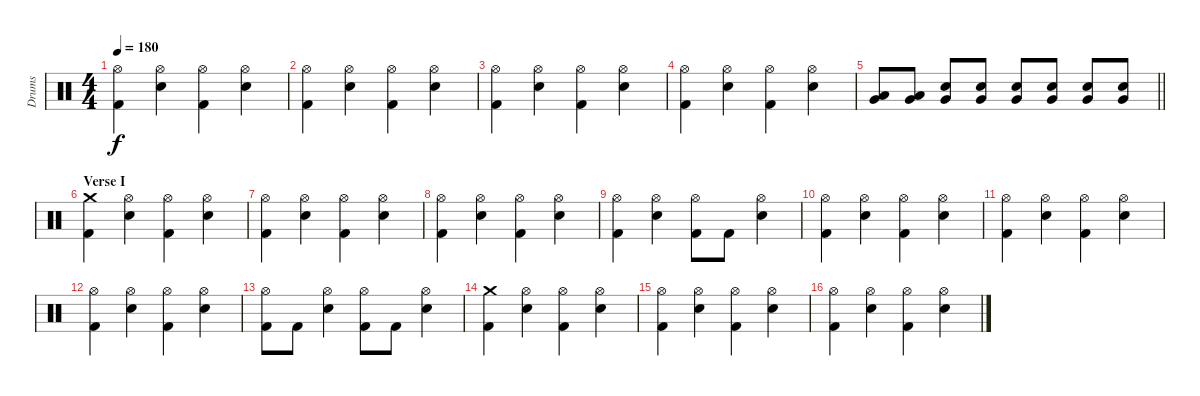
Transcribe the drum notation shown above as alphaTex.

\track ("Drums" "Drums") {instrument percussion}
\staff {score}
\articulation defaults
\ts (4 4)
\tempo 180
\clef neutral
\ks c
("Hi-Hat (open)" "Kick (hit) 2").4{dy f} ("Hi-Hat (open)" "Electric Snare (hit)").4 ("Hi-Hat (open)" "Kick (hit) 2").4 ("Hi-Hat (open)" "Electric Snare (hit)").4 |
("Hi-Hat (open)" "Kick (hit) 2").4 ("Hi-Hat (open)" "Electric Snare (hit)").4 ("Hi-Hat (open)" "Kick (hit) 2").4 ("Hi-Hat (open)" "Electric Snare (hit)").4 |
("Hi-Hat (open)" "Kick (hit) 2").4 ("Hi-Hat (open)" "Electric Snare (hit)").4 ("Hi-Hat (open)" "Kick (hit) 2").4 ("Hi-Hat (open)" "Electric Snare (hit)").4 |
("Hi-Hat (open)" "Kick (hit) 2").4 ("Hi-Hat (open)" "Electric Snare (hit)").4 ("Hi-Hat (open)" "Kick (hit) 2").4 ("Hi-Hat (open)" "Electric Snare (hit)").4 |
\barLineRight lightlight
("Low Tom (hit)" "Very Low Tom (hit)").8 ("Low Tom (hit)" "Very Low Tom (hit)").8 ("Electric Snare (hit)" "Very Low Tom (hit)").8 ("Electric Snare (hit)" "Very Low Tom (hit)").8 ("Electric Snare (hit)" "Very Low Tom (hit)").8 ("Electric Snare (hit)" "Very Low Tom (hit)").8 ("Electric Snare (hit)" "Very Low Tom (hit)").8 ("Electric Snare (hit)" "Very Low Tom (hit)").8 |
\section ("" "Verse I")
("Crash medium (hit)" "Kick (hit) 2").4 ("Hi-Hat (open)" "Electric Snare (hit)").4 ("Hi-Hat (open)" "Kick (hit) 2").4 ("Hi-Hat (open)" "Electric Snare (hit)").4 |
("Hi-Hat (open)" "Kick (hit) 2").4 ("Hi-Hat (open)" "Electric Snare (hit)").4 ("Hi-Hat (open)" "Kick (hit) 2").4 ("Hi-Hat (open)" "Electric Snare (hit)").4 |
("Hi-Hat (open)" "Kick (hit) 2").4 ("Hi-Hat (open)" "Electric Snare (hit)").4 ("Hi-Hat (open)" "Kick (hit) 2").4 ("Hi-Hat (open)" "Electric Snare (hit)").4 |
("Hi-Hat (open)" "Kick (hit) 2").4 ("Hi-Hat (open)" "Electric Snare (hit)").4 ("Hi-Hat (open)" "Kick (hit) 2").8 "Kick (hit) 2".8 ("Hi-Hat (open)" "Electric Snare (hit)").4 |
("Hi-Hat (open)" "Kick (hit) 2").4 ("Hi-Hat (open)" "Electric Snare (hit)").4 ("Hi-Hat (open)" "Kick (hit) 2").4 ("Hi-Hat (open)" "Electric Snare (hit)").4 |
("Hi-Hat (open)" "Kick (hit) 2").4 ("Hi-Hat (open)" "Electric Snare (hit)").4 ("Hi-Hat (open)" "Kick (hit) 2").4 ("Hi-Hat (open)" "Electric Snare (hit)").4 |
("Hi-Hat (open)" "Kick (hit) 2").4 ("Hi-Hat (open)" "Electric Snare (hit)").4 ("Hi-Hat (open)" "Kick (hit) 2").4 ("Hi-Hat (open)" "Electric Snare (hit)").4 |
("Hi-Hat (open)" "Kick (hit) 2").8 "Kick (hit) 2".8 ("Hi-Hat (open)" "Electric Snare (hit)").4 ("Hi-Hat (open)" "Kick (hit) 2").8 "Kick (hit) 2".8 ("Hi-Hat (open)" "Electric Snare (hit)").4 |
("Crash medium (hit)" "Kick (hit) 2").4 ("Hi-Hat (open)" "Electric Snare (hit)").4 ("Hi-Hat (open)" "Kick (hit) 2").4 ("Hi-Hat (open)" "Electric Snare (hit)").4 |
("Hi-Hat (open)" "Kick (hit) 2").4 ("Hi-Hat (open)" "Electric Snare (hit)").4 ("Hi-Hat (open)" "Kick (hit) 2").4 ("Hi-Hat (open)" "Electric Snare (hit)").4 |
("Hi-Hat (open)" "Kick (hit) 2").4 ("Hi-Hat (open)" "Electric Snare (hit)").4 ("Hi-Hat (open)" "Kick (hit) 2").4 ("Hi-Hat (open)" "Electric Snare (hit)").4
